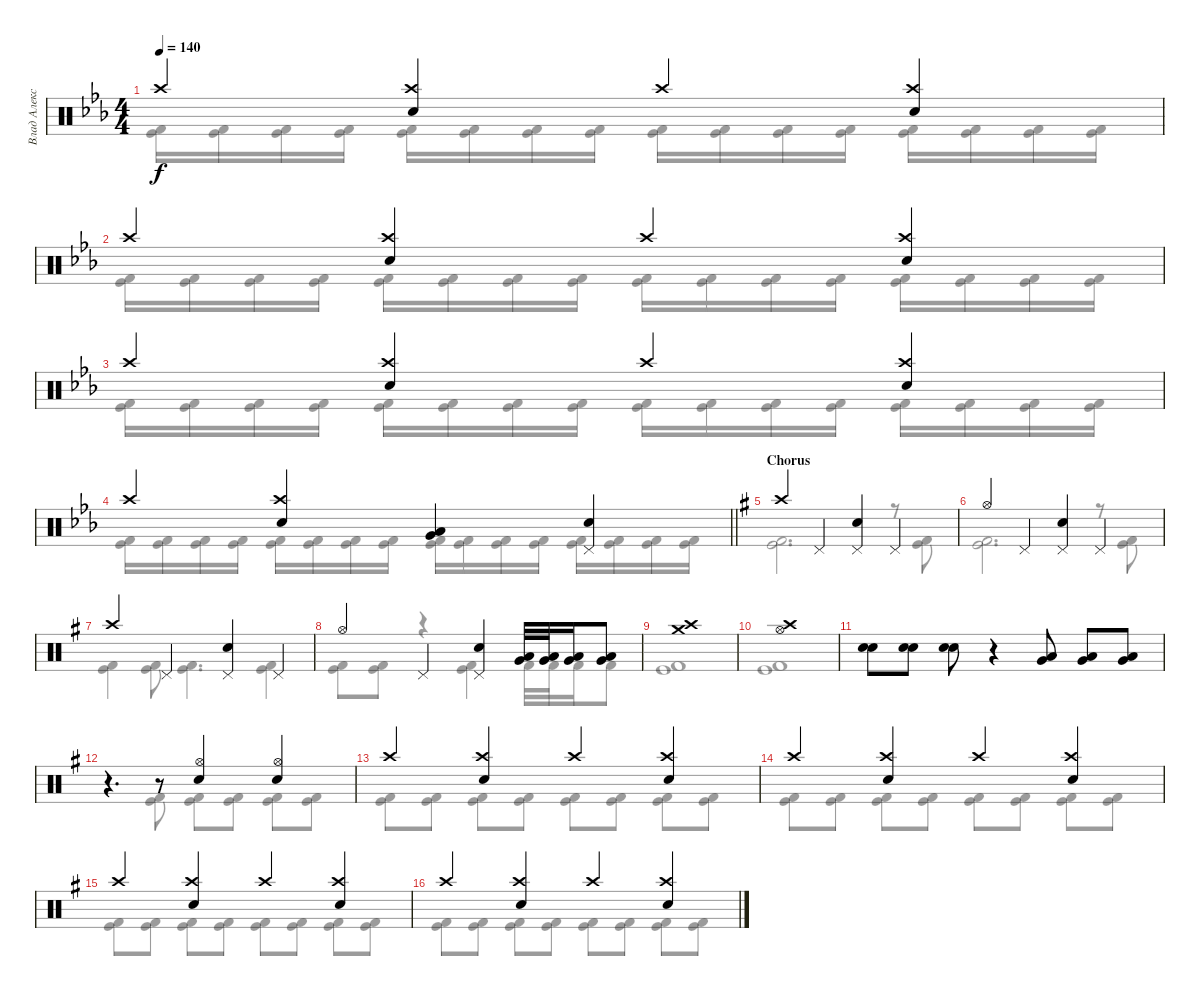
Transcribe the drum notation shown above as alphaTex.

\track ("Влад Алексеенко" "Влад Алекс") {instrument percussion}
\staff {score}
\articulation defaults
\voice
\ts (4 4)
\tempo 140
\clef neutral
\ks eb "Crash high (hit)".4{dy f}
("Electric Snare (hit)" "Crash high (hit)").4 "Crash high (hit)".4 ("Electric Snare (hit)" "Crash high (hit)").4 |
"Crash high (hit)".4 ("Electric Snare (hit)" "Crash high (hit)").4 "Crash high (hit)".4 ("Electric Snare (hit)" "Crash high (hit)").4 |
"Crash high (hit)".4 ("Electric Snare (hit)" "Crash high (hit)").4 "Crash high (hit)".4 ("Electric Snare (hit)" "Crash high (hit)").4 |
\barLineRight lightlight "Crash high (hit)".4
("Electric Snare (hit)" "Crash high (hit)").4 ("Very Low Tom (hit)" "Low Tom (hit)").4 ("Electric Snare (hit)" "Pedal Hi-Hat (hit)").4 |
\section ("" "Chorus")
\ks g "Crash high (hit)".4 "Pedal Hi-Hat (hit)".4
("Electric Snare (hit)" "Pedal Hi-Hat (hit)").4 "Pedal Hi-Hat (hit)".4 |
"Hi-Hat (open)".4 "Pedal Hi-Hat (hit)".4 ("Electric Snare (hit)" "Pedal Hi-Hat (hit)").4 "Pedal Hi-Hat (hit)".4 |
"Crash high (hit)".4 "Pedal Hi-Hat (hit)".4 ("Electric Snare (hit)" "Pedal Hi-Hat (hit)").4 "Pedal Hi-Hat (hit)".4 |
"Hi-Hat (open)".4 "Pedal Hi-Hat (hit)".4 ("Electric Snare (hit)" "Pedal Hi-Hat (hit)").4 ("Low Tom (hit)" "Very Low Tom (hit)").32 ("Very Low Tom (hit)" "Low Tom (hit)").32 ("Low Tom (hit)" "Very Low Tom (hit)").16 ("Low Tom (hit)" "Very Low Tom (hit)").8 |
("Crash high (hit)" "Crash medium (hit)").1 |
("Crash high (hit)" "Hi-Hat (open)").1 |
("Electric Snare (hit)" "Electric Snare (hit)").8 ("Electric Snare (hit)" "Electric Snare (hit)").8 ("Electric Snare (hit)" "Electric Snare (hit)").8 r.4 ("Very Low Tom (hit)" "Low Tom (hit)").8 ("Very Low Tom (hit)" "Low Tom (hit)").8 ("Very Low Tom (hit)" "Low Tom (hit)").8 |
r.4{d} r.8 ("Electric Snare (hit)" "Hi-Hat (open)").4 ("Electric Snare (hit)" "Hi-Hat (open)").4 |
"Crash high (hit)".4 ("Electric Snare (hit)" "Crash high (hit)").4 "Crash high (hit)".4 ("Electric Snare (hit)" "Crash high (hit)").4 |
"Crash high (hit)".4 ("Electric Snare (hit)" "Crash high (hit)").4 "Crash high (hit)".4 ("Electric Snare (hit)" "Crash high (hit)").4 |
"Crash high (hit)".4 ("Electric Snare (hit)" "Crash high (hit)").4 "Crash high (hit)".4 ("Electric Snare (hit)" "Crash high (hit)").4 |
"Crash high (hit)".4 ("Electric Snare (hit)" "Crash high (hit)").4 "Crash high (hit)".4 ("Electric Snare (hit)" "Crash high (hit)").4
\voice
\clef neutral
\ottava regular
\simile none
\ks eb
("Kick (hit) 2" "Kick (hit)").16{dy f} ("Kick (hit) 2" "Kick (hit)").16 ("Kick (hit) 2" "Kick (hit)").16 ("Kick (hit) 2" "Kick (hit)").16 ("Kick (hit) 2" "Kick (hit)").16 ("Kick (hit) 2" "Kick (hit)").16 ("Kick (hit) 2" "Kick (hit)").16 ("Kick (hit) 2" "Kick (hit)").16 ("Kick (hit) 2" "Kick (hit)").16 ("Kick (hit) 2" "Kick (hit)").16 ("Kick (hit) 2" "Kick (hit)").16 ("Kick (hit) 2" "Kick (hit)").16 ("Kick (hit) 2" "Kick (hit)").16 ("Kick (hit) 2" "Kick (hit)").16 ("Kick (hit) 2" "Kick (hit)").16 ("Kick (hit) 2" "Kick (hit)").16 |
("Kick (hit) 2" "Kick (hit)").16 ("Kick (hit) 2" "Kick (hit)").16 ("Kick (hit) 2" "Kick (hit)").16 ("Kick (hit) 2" "Kick (hit)").16 ("Kick (hit) 2" "Kick (hit)").16 ("Kick (hit) 2" "Kick (hit)").16 ("Kick (hit) 2" "Kick (hit)").16 ("Kick (hit) 2" "Kick (hit)").16 ("Kick (hit) 2" "Kick (hit)").16 ("Kick (hit) 2" "Kick (hit)").16 ("Kick (hit) 2" "Kick (hit)").16 ("Kick (hit) 2" "Kick (hit)").16 ("Kick (hit) 2" "Kick (hit)").16 ("Kick (hit) 2" "Kick (hit)").16 ("Kick (hit) 2" "Kick (hit)").16 ("Kick (hit) 2" "Kick (hit)").16 |
("Kick (hit) 2" "Kick (hit)").16 ("Kick (hit) 2" "Kick (hit)").16 ("Kick (hit) 2" "Kick (hit)").16 ("Kick (hit) 2" "Kick (hit)").16 ("Kick (hit) 2" "Kick (hit)").16 ("Kick (hit) 2" "Kick (hit)").16 ("Kick (hit) 2" "Kick (hit)").16 ("Kick (hit) 2" "Kick (hit)").16 ("Kick (hit) 2" "Kick (hit)").16 ("Kick (hit) 2" "Kick (hit)").16 ("Kick (hit) 2" "Kick (hit)").16 ("Kick (hit) 2" "Kick (hit)").16 ("Kick (hit) 2" "Kick (hit)").16 ("Kick (hit) 2" "Kick (hit)").16 ("Kick (hit) 2" "Kick (hit)").16 ("Kick (hit) 2" "Kick (hit)").16 |
\barLineRight lightlight
("Kick (hit) 2" "Kick (hit)").16 ("Kick (hit) 2" "Kick (hit)").16 ("Kick (hit) 2" "Kick (hit)").16 ("Kick (hit) 2" "Kick (hit)").16 ("Kick (hit) 2" "Kick (hit)").16 ("Kick (hit) 2" "Kick (hit)").16 ("Kick (hit) 2" "Kick (hit)").16 ("Kick (hit) 2" "Kick (hit)").16 ("Kick (hit) 2" "Kick (hit)").16 ("Kick (hit) 2" "Kick (hit)").16 ("Kick (hit) 2" "Kick (hit)").16 ("Kick (hit) 2" "Kick (hit)").16 ("Kick (hit) 2" "Kick (hit)").16 ("Kick (hit) 2" "Kick (hit)").16 ("Kick (hit) 2" "Kick (hit)").16 ("Kick (hit) 2" "Kick (hit)").16 |
\ks g
("Kick (hit) 2" "Kick (hit)").2{d} r.8 ("Kick (hit) 2" "Kick (hit)").8 |
("Kick (hit) 2" "Kick (hit)").2{d} r.8 ("Kick (hit) 2" "Kick (hit)").8 |
("Kick (hit) 2" "Kick (hit)").4 ("Kick (hit) 2" "Kick (hit)").8 ("Kick (hit) 2" "Kick (hit)").4{d} ("Kick (hit) 2" "Kick (hit)").4 |
("Kick (hit) 2" "Kick (hit)").8 ("Kick (hit) 2" "Kick (hit)").8 r.4 ("Kick (hit) 2" "Kick (hit)").4 "Kick (hit) 2".32 "Kick (hit) 2".32 "Kick (hit) 2".16 "Kick (hit) 2".8 |
("Kick (hit) 2" "Kick (hit)").1 |
("Kick (hit) 2" "Kick (hit)").1 |
|
r.4{d} ("Kick (hit) 2" "Kick (hit)").8 ("Kick (hit) 2" "Kick (hit)").8 ("Kick (hit) 2" "Kick (hit)").8 ("Kick (hit) 2" "Kick (hit)").8 ("Kick (hit) 2" "Kick (hit)").8 |
("Kick (hit) 2" "Kick (hit)").8 ("Kick (hit) 2" "Kick (hit)").8 ("Kick (hit) 2" "Kick (hit)").8 ("Kick (hit) 2" "Kick (hit)").8 ("Kick (hit) 2" "Kick (hit)").8 ("Kick (hit) 2" "Kick (hit)").8 ("Kick (hit) 2" "Kick (hit)").8 ("Kick (hit) 2" "Kick (hit)").8 |
("Kick (hit) 2" "Kick (hit)").8 ("Kick (hit) 2" "Kick (hit)").8 ("Kick (hit) 2" "Kick (hit)").8 ("Kick (hit) 2" "Kick (hit)").8 ("Kick (hit) 2" "Kick (hit)").8 ("Kick (hit) 2" "Kick (hit)").8 ("Kick (hit) 2" "Kick (hit)").8 ("Kick (hit) 2" "Kick (hit)").8 |
("Kick (hit) 2" "Kick (hit)").8 ("Kick (hit) 2" "Kick (hit)").8 ("Kick (hit) 2" "Kick (hit)").8 ("Kick (hit) 2" "Kick (hit)").8 ("Kick (hit) 2" "Kick (hit)").8 ("Kick (hit) 2" "Kick (hit)").8 ("Kick (hit) 2" "Kick (hit)").8 ("Kick (hit) 2" "Kick (hit)").8 |
("Kick (hit) 2" "Kick (hit)").8 ("Kick (hit) 2" "Kick (hit)").8 ("Kick (hit) 2" "Kick (hit)").8 ("Kick (hit) 2" "Kick (hit)").8 ("Kick (hit) 2" "Kick (hit)").8 ("Kick (hit) 2" "Kick (hit)").8 ("Kick (hit) 2" "Kick (hit)").8 ("Kick (hit) 2" "Kick (hit)").8
